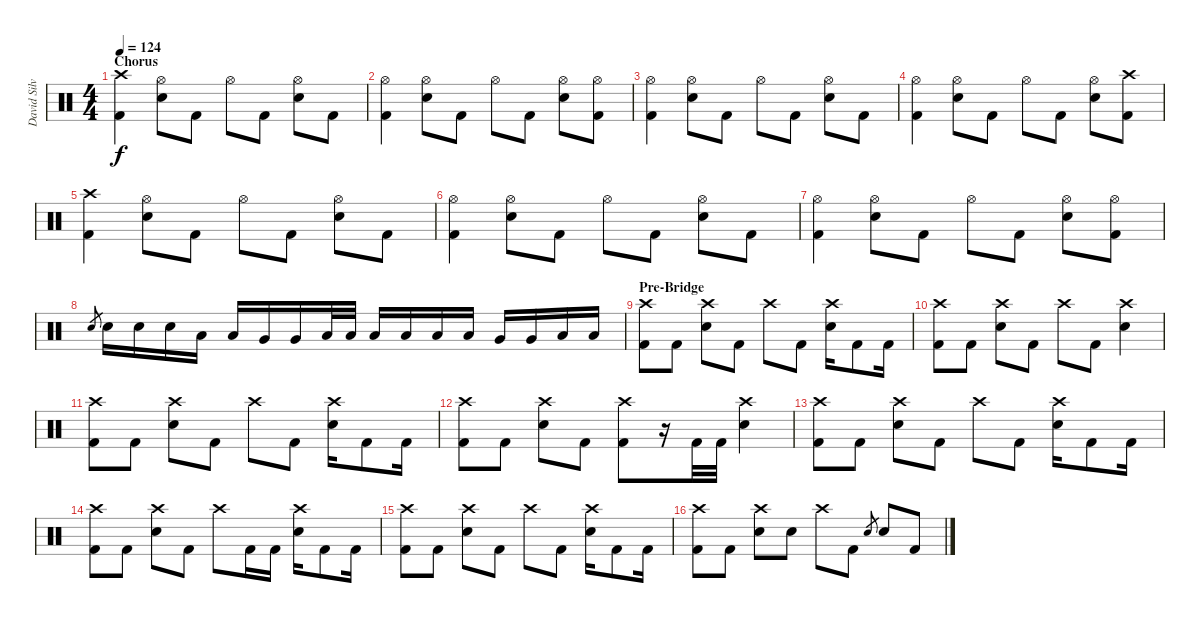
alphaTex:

\track ("David Silvera" "David Silv") {instrument percussion}
\staff {score}
\articulation defaults
\ts (4 4)
\section ("" "Chorus")
\tempo 124
\clef neutral
\ks c
("Crash high (hit)" "Kick (hit) 2").4{dy f} ("Hi-Hat (open)" "Electric Snare (hit)").8 "Kick (hit) 2".8 "Hi-Hat (open)".8 "Kick (hit) 2".8 ("Hi-Hat (open)" "Electric Snare (hit)").8 "Kick (hit) 2".8 |
("Hi-Hat (open)" "Kick (hit) 2").4 ("Hi-Hat (open)" "Electric Snare (hit)").8 "Kick (hit) 2".8 "Hi-Hat (open)".8 "Kick (hit) 2".8 ("Hi-Hat (open)" "Electric Snare (hit)").8 ("Hi-Hat (open)" "Kick (hit) 2").8 |
("Hi-Hat (open)" "Kick (hit) 2").4 ("Hi-Hat (open)" "Electric Snare (hit)").8 "Kick (hit) 2".8 "Hi-Hat (open)".8 "Kick (hit) 2".8 ("Hi-Hat (open)" "Electric Snare (hit)").8 "Kick (hit) 2".8 |
("Hi-Hat (open)" "Kick (hit) 2").4 ("Hi-Hat (open)" "Electric Snare (hit)").8 "Kick (hit) 2".8 "Hi-Hat (open)".8 "Kick (hit) 2".8 ("Hi-Hat (open)" "Electric Snare (hit)").8 ("Crash high (hit)" "Kick (hit) 2").8 |
("Crash high (hit)" "Kick (hit) 2").4 ("Hi-Hat (open)" "Electric Snare (hit)").8 "Kick (hit) 2".8 "Hi-Hat (open)".8 "Kick (hit) 2".8 ("Hi-Hat (open)" "Electric Snare (hit)").8 "Kick (hit) 2".8 |
("Hi-Hat (open)" "Kick (hit) 2").4 ("Hi-Hat (open)" "Electric Snare (hit)").8 "Kick (hit) 2".8 "Hi-Hat (open)".8 "Kick (hit) 2".8 ("Hi-Hat (open)" "Electric Snare (hit)").8 "Kick (hit) 2".8 |
("Hi-Hat (open)" "Kick (hit) 2").4 ("Hi-Hat (open)" "Electric Snare (hit)").8 "Kick (hit) 2".8 "Hi-Hat (open)".8 "Kick (hit) 2".8 ("Hi-Hat (open)" "Electric Snare (hit)").8 ("Hi-Hat (open)" "Kick (hit) 2").8 |
"Electric Snare (hit)".8{gr} "Electric Snare (hit)".16 "Electric Snare (hit)".16 "Electric Snare (hit)".16 "Low Tom (hit)".16 "Low Tom (hit)".16 "Very Low Tom (hit)".16 "Very Low Tom (hit)".16 "Low Floor Tom (hit)".32 "Low Floor Tom (hit)".32 "Low Floor Tom (hit)".16 "Low Floor Tom (hit)".16 "Low Tom (hit)".16 "Low Tom (hit)".16 "Very Low Tom (hit)".16 "Very Low Tom (hit)".16 "Low Floor Tom (hit)".16 "Low Floor Tom (hit)".16 |
\section ("" "Pre-Bridge")
("Crash high (hit)" "Kick (hit) 2").8 "Kick (hit) 2".8 ("Crash high (hit)" "Electric Snare (hit)").8 "Kick (hit) 2".8 "Crash high (hit)".8 "Kick (hit) 2".8 ("Crash high (hit)" "Electric Snare (hit)").16 "Kick (hit) 2".8 "Kick (hit) 2".16 |
("Crash high (hit)" "Kick (hit) 2").8 "Kick (hit) 2".8 ("Crash high (hit)" "Electric Snare (hit)").8 "Kick (hit) 2".8 "Crash high (hit)".8 "Kick (hit) 2".8 ("Crash high (hit)" "Electric Snare (hit)").4 |
("Crash high (hit)" "Kick (hit) 2").8 "Kick (hit) 2".8 ("Crash high (hit)" "Electric Snare (hit)").8 "Kick (hit) 2".8 "Crash high (hit)".8 "Kick (hit) 2".8 ("Crash high (hit)" "Electric Snare (hit)").16 "Kick (hit) 2".8 "Kick (hit) 2".16 |
("Crash high (hit)" "Kick (hit) 2").8 "Kick (hit) 2".8 ("Crash high (hit)" "Electric Snare (hit)").8 "Kick (hit) 2".8 ("Crash high (hit)" "Kick (hit) 2").8 r.16 "Kick (hit) 2".32 "Kick (hit) 2".32 ("Crash high (hit)" "Electric Snare (hit)").4 |
("Crash high (hit)" "Kick (hit) 2").8 "Kick (hit) 2".8 ("Crash high (hit)" "Electric Snare (hit)").8 "Kick (hit) 2".8 "Crash high (hit)".8 "Kick (hit) 2".8 ("Crash high (hit)" "Electric Snare (hit)").16 "Kick (hit) 2".8 "Kick (hit) 2".16 |
("Crash high (hit)" "Kick (hit) 2").8 "Kick (hit) 2".8 ("Crash high (hit)" "Electric Snare (hit)").8 "Kick (hit) 2".8 "Crash high (hit)".8 "Kick (hit) 2".16 "Kick (hit) 2".16 ("Crash high (hit)" "Electric Snare (hit)").16 "Kick (hit) 2".8 "Kick (hit) 2".16 |
("Crash high (hit)" "Kick (hit) 2").8 "Kick (hit) 2".8 ("Crash high (hit)" "Electric Snare (hit)").8 "Kick (hit) 2".8 "Crash high (hit)".8 "Kick (hit) 2".8 ("Crash high (hit)" "Electric Snare (hit)").16 "Kick (hit) 2".8 "Kick (hit) 2".16 |
("Crash high (hit)" "Kick (hit) 2").8 "Kick (hit) 2".8 ("Crash high (hit)" "Electric Snare (hit)").8 "Electric Snare (hit)".8 "Crash high (hit)".8 "Kick (hit) 2".8 "Electric Snare (hit)".8{gr} "Electric Snare (hit)".8 "Kick (hit) 2".8
